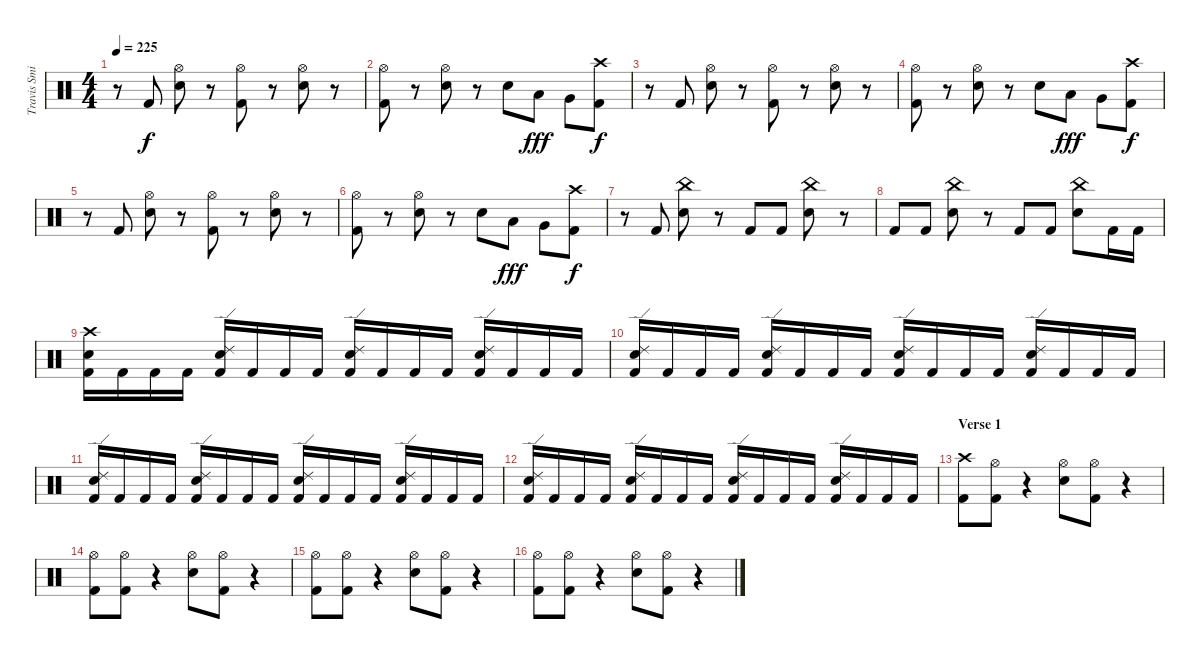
\track ("Travis Smith" "Travis Smi") {instrument percussion}
\staff {score}
\articulation defaults
\ts (4 4)
\tempo 225
\clef neutral
\ks c
r.8{dy f} "Kick (hit) 2".8 ("Hi-Hat (open)" "Electric Snare (hit)").8 r.8 ("Hi-Hat (open)" "Kick (hit) 2").8 r.8 ("Hi-Hat (open)" "Electric Snare (hit)").8 r.8 |
("Hi-Hat (open)" "Kick (hit) 2").8 r.8 ("Hi-Hat (open)" "Electric Snare (hit)").8 r.8 "Electric Snare (hit)".8 "Low Tom (hit)".8{dy fff} "Very Low Tom (hit)".8 ("Crash high (hit)" "Kick (hit) 2").8{dy f} |
r.8 "Kick (hit) 2".8 ("Hi-Hat (open)" "Electric Snare (hit)").8 r.8 ("Hi-Hat (open)" "Kick (hit) 2").8 r.8 ("Hi-Hat (open)" "Electric Snare (hit)").8 r.8 |
("Hi-Hat (open)" "Kick (hit) 2").8 r.8 ("Hi-Hat (open)" "Electric Snare (hit)").8 r.8 "Electric Snare (hit)".8 "Low Tom (hit)".8{dy fff} "Very Low Tom (hit)".8 ("Crash high (hit)" "Kick (hit) 2").8{dy f} |
r.8 "Kick (hit) 2".8 ("Hi-Hat (open)" "Electric Snare (hit)").8 r.8 ("Hi-Hat (open)" "Kick (hit) 2").8 r.8 ("Hi-Hat (open)" "Electric Snare (hit)").8 r.8 |
("Hi-Hat (open)" "Kick (hit) 2").8 r.8 ("Hi-Hat (open)" "Electric Snare (hit)").8 r.8 "Electric Snare (hit)".8 "Low Tom (hit)".8{dy fff} "Very Low Tom (hit)".8 ("Crash high (hit)" "Kick (hit) 2").8{dy f} |
r.8 "Kick (hit) 2".8 ("China (hit)" "Electric Snare (hit)").8 r.8 "Kick (hit) 2".8 "Kick (hit) 2".8 ("China (hit)" "Electric Snare (hit)").8 r.8 |
"Kick (hit) 2".8 "Kick (hit) 2".8 ("China (hit)" "Electric Snare (hit)").8 r.8 "Kick (hit) 2".8 "Kick (hit) 2".8 ("China (hit)" "Electric Snare (hit)").8 "Kick (hit) 2".16 "Kick (hit) 2".16 |
("Crash high (hit)" "Electric Snare (hit)" "Kick (hit) 2").16 "Kick (hit) 2".16 "Kick (hit) 2".16 "Kick (hit) 2".16 ("Ride (edge) 2" "Electric Snare (hit)" "Kick (hit) 2").16 "Kick (hit) 2".16 "Kick (hit) 2".16 "Kick (hit) 2".16 ("Ride (edge) 2" "Electric Snare (hit)" "Kick (hit) 2").16 "Kick (hit) 2".16 "Kick (hit) 2".16 "Kick (hit) 2".16 ("Ride (edge) 2" "Electric Snare (hit)" "Kick (hit) 2").16 "Kick (hit) 2".16 "Kick (hit) 2".16 "Kick (hit) 2".16 |
("Ride (edge) 2" "Electric Snare (hit)" "Kick (hit) 2").16 "Kick (hit) 2".16 "Kick (hit) 2".16 "Kick (hit) 2".16 ("Ride (edge) 2" "Electric Snare (hit)" "Kick (hit) 2").16 "Kick (hit) 2".16 "Kick (hit) 2".16 "Kick (hit) 2".16 ("Ride (edge) 2" "Electric Snare (hit)" "Kick (hit) 2").16 "Kick (hit) 2".16 "Kick (hit) 2".16 "Kick (hit) 2".16 ("Ride (edge) 2" "Electric Snare (hit)" "Kick (hit) 2").16 "Kick (hit) 2".16 "Kick (hit) 2".16 "Kick (hit) 2".16 |
("Ride (edge) 2" "Electric Snare (hit)" "Kick (hit) 2").16 "Kick (hit) 2".16 "Kick (hit) 2".16 "Kick (hit) 2".16 ("Ride (edge) 2" "Electric Snare (hit)" "Kick (hit) 2").16 "Kick (hit) 2".16 "Kick (hit) 2".16 "Kick (hit) 2".16 ("Ride (edge) 2" "Electric Snare (hit)" "Kick (hit) 2").16 "Kick (hit) 2".16 "Kick (hit) 2".16 "Kick (hit) 2".16 ("Ride (edge) 2" "Electric Snare (hit)" "Kick (hit) 2").16 "Kick (hit) 2".16 "Kick (hit) 2".16 "Kick (hit) 2".16 |
("Ride (edge) 2" "Electric Snare (hit)" "Kick (hit) 2").16 "Kick (hit) 2".16 "Kick (hit) 2".16 "Kick (hit) 2".16 ("Ride (edge) 2" "Electric Snare (hit)" "Kick (hit) 2").16 "Kick (hit) 2".16 "Kick (hit) 2".16 "Kick (hit) 2".16 ("Ride (edge) 2" "Electric Snare (hit)" "Kick (hit) 2").16 "Kick (hit) 2".16 "Kick (hit) 2".16 "Kick (hit) 2".16 ("Ride (edge) 2" "Electric Snare (hit)" "Kick (hit) 2").16 "Kick (hit) 2".16 "Kick (hit) 2".16 "Kick (hit) 2".16 |
\section ("" "Verse 1")
("Crash high (hit)" "Kick (hit) 2").8 ("Hi-Hat (open)" "Kick (hit) 2").8 r.4 ("Hi-Hat (open)" "Electric Snare (hit)").8 ("Hi-Hat (open)" "Kick (hit) 2").8 r.4 |
("Hi-Hat (open)" "Kick (hit) 2").8 ("Hi-Hat (open)" "Kick (hit) 2").8 r.4 ("Hi-Hat (open)" "Electric Snare (hit)").8 ("Hi-Hat (open)" "Kick (hit) 2").8 r.4 |
("Hi-Hat (open)" "Kick (hit) 2").8 ("Hi-Hat (open)" "Kick (hit) 2").8 r.4 ("Hi-Hat (open)" "Electric Snare (hit)").8 ("Hi-Hat (open)" "Kick (hit) 2").8 r.4 |
("Hi-Hat (open)" "Kick (hit) 2").8 ("Hi-Hat (open)" "Kick (hit) 2").8 r.4 ("Hi-Hat (open)" "Electric Snare (hit)").8 ("Hi-Hat (open)" "Kick (hit) 2").8 r.4
